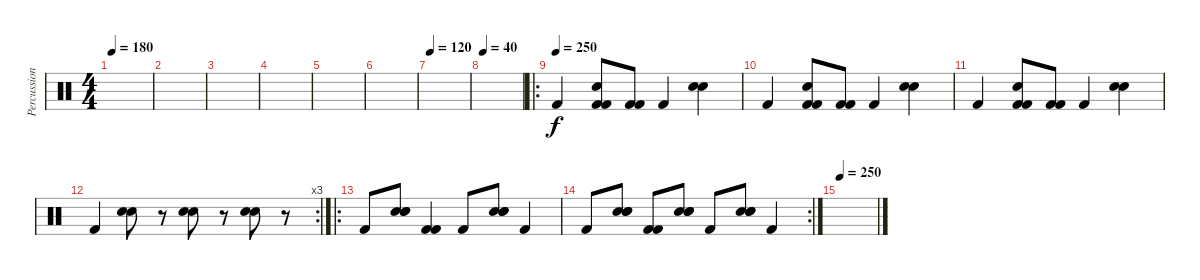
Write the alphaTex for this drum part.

\track ("Percussions" "Percussion") {instrument percussion}
\staff {score}
\articulation defaults
\ts (4 4)
\tempo 180
\clef neutral
\ks c
|
|
|
|
|
|
\tempo 120
|
\tempo 40
|
\ro
\tempo (250)
"Kick (hit) 2".4 ("Electric Snare (hit)" "Kick (hit) 2" "Kick (hit) 2").8 ("Kick (hit) 2" "Kick (hit) 2").8 "Kick (hit) 2".4 ("Hand Clap (hit)" "Snare (hit) 2").4 |
"Kick (hit) 2".4 ("Electric Snare (hit)" "Kick (hit) 2" "Kick (hit) 2").8 ("Kick (hit) 2" "Kick (hit) 2").8 "Kick (hit) 2".4 ("Hand Clap (hit)" "Snare (hit) 2").4 |
"Kick (hit) 2".4 ("Electric Snare (hit)" "Kick (hit) 2" "Kick (hit) 2").8 ("Kick (hit) 2" "Kick (hit) 2").8 "Kick (hit) 2".4 ("Hand Clap (hit)" "Snare (hit) 2").4 |
\rc 3 "Kick (hit) 2".4
("Hand Clap (hit)" "Hand Clap (hit)").8 r.8 ("Hand Clap (hit)" "Hand Clap (hit)").8 r.8 ("Hand Clap (hit)" "Hand Clap (hit)").8 r.8 |
\ro "Kick (hit) 2".8
("Snare (hit) 2" "Electric Snare (hit)" "Electric Snare (hit)").8{bu 480} ("Kick (hit) 2" "Kick (hit) 2").4 "Kick (hit) 2".8 ("Snare (hit) 2" "Electric Snare (hit)" "Electric Snare (hit)").8{bu 480} "Kick (hit) 2".4 |
\rc 2 "Kick (hit) 2".8
("Snare (hit) 2" "Electric Snare (hit)" "Electric Snare (hit)").8{bu 480} ("Kick (hit) 2" "Kick (hit) 2").8 ("Snare (hit) 2" "Electric Snare (hit)" "Electric Snare (hit)").8{bu 480} "Kick (hit) 2".8 ("Snare (hit) 2" "Electric Snare (hit)" "Electric Snare (hit)").8{bu 480} "Kick (hit) 2".4 |
\tempo 250
